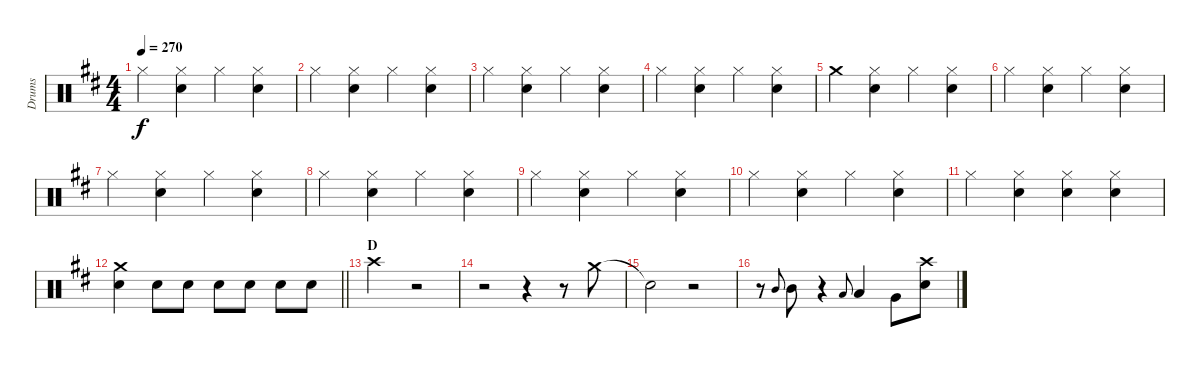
\track ("Drums" "Drums") {instrument percussion}
\staff {score}
\articulation defaults
\ts (4 4)
\tempo 270
\clef neutral
\ks d "Hi-Hat (closed)".4{dy f}
("Hi-Hat (closed)" "Snare (hit) 2").4 "Hi-Hat (closed)".4 ("Hi-Hat (closed)" "Snare (hit) 2").4 |
"Hi-Hat (closed)".4 ("Hi-Hat (closed)" "Snare (hit) 2").4 "Hi-Hat (closed)".4 ("Hi-Hat (closed)" "Snare (hit) 2").4 |
"Hi-Hat (closed)".4 ("Hi-Hat (closed)" "Snare (hit) 2").4 "Hi-Hat (closed)".4 ("Hi-Hat (closed)" "Snare (hit) 2").4 |
"Hi-Hat (closed)".4 ("Hi-Hat (closed)" "Snare (hit) 2").4 "Hi-Hat (closed)".4 ("Hi-Hat (closed)" "Snare (hit) 2").4 |
"Crash medium (hit)".4 ("Hi-Hat (closed)" "Snare (hit) 2").4 "Hi-Hat (closed)".4 ("Hi-Hat (closed)" "Snare (hit) 2").4 |
"Hi-Hat (closed)".4 ("Hi-Hat (closed)" "Snare (hit) 2").4 "Hi-Hat (closed)".4 ("Hi-Hat (closed)" "Snare (hit) 2").4 |
"Hi-Hat (closed)".4 ("Hi-Hat (closed)" "Snare (hit) 2").4 "Hi-Hat (closed)".4 ("Hi-Hat (closed)" "Snare (hit) 2").4 |
"Hi-Hat (closed)".4 ("Hi-Hat (closed)" "Snare (hit) 2").4 "Hi-Hat (closed)".4 ("Hi-Hat (closed)" "Snare (hit) 2").4 |
"Hi-Hat (closed)".4 ("Hi-Hat (closed)" "Snare (hit) 2").4 "Hi-Hat (closed)".4 ("Hi-Hat (closed)" "Snare (hit) 2").4 |
"Hi-Hat (closed)".4 ("Hi-Hat (closed)" "Snare (hit) 2").4 "Hi-Hat (closed)".4 ("Hi-Hat (closed)" "Snare (hit) 2").4 |
"Hi-Hat (closed)".4 ("Hi-Hat (closed)" "Snare (hit) 2").4 ("Hi-Hat (closed)" "Snare (hit) 2").4 ("Hi-Hat (closed)" "Snare (hit) 2").4 |
\barLineRight lightlight
("Crash medium (hit)" "Snare (hit) 2").4 "Snare (hit) 2".8 "Snare (hit) 2".8 "Snare (hit) 2".8 "Snare (hit) 2".8 "Snare (hit) 2".8 "Snare (hit) 2".8 |
\section ("" "D")
"Crash high (hit)".2 r.2 |
r.2 r.4 r.8 "Crash medium (hit)".8 |
"Snare (hit)"{t}.2 r.2 |
r.8 "Mid Tom (hit)".8{gr onbeat} "Mid Tom (hit)".8 r.4 "Low Tom (hit)".8{gr onbeat} "Low Tom (hit)".4 "Very Low Tom (hit)".8 ("Crash high (hit)" "Snare (hit) 2").8
